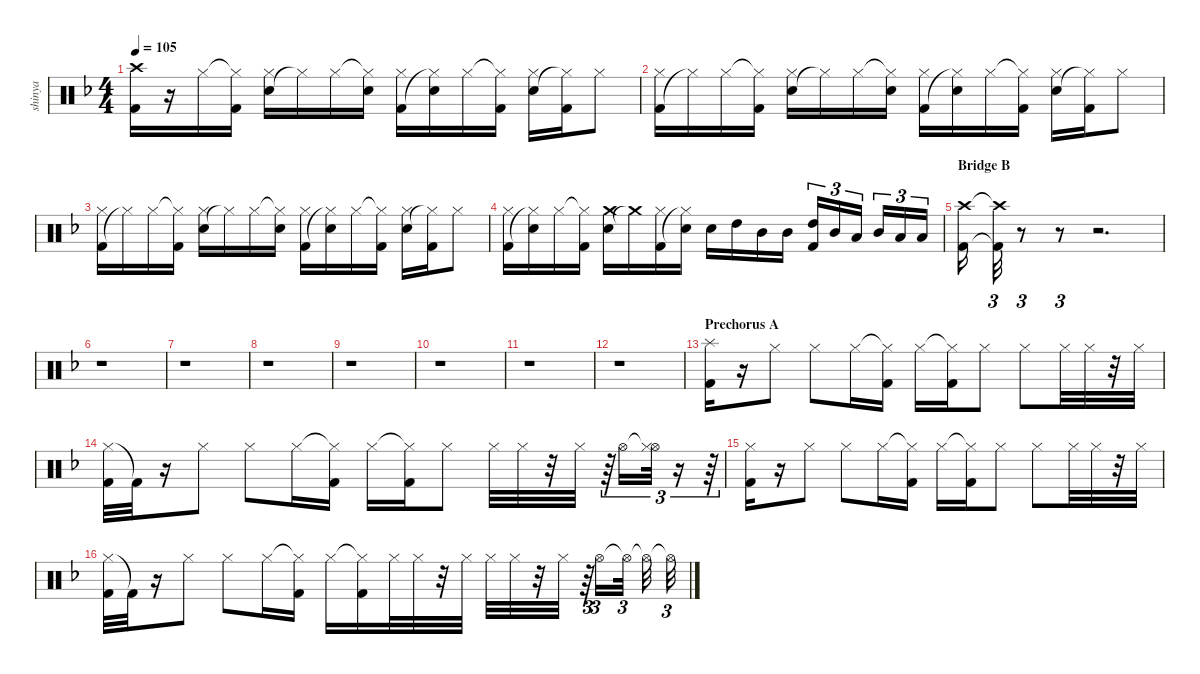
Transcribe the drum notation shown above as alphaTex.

\defaultSystemsLayout 4
\hideDynamics
\bracketExtendMode nobrackets
\otherSystemsTrackNameOrientation horizontal
\track ("Shinya" "shinya") {defaultSystemsLayout 4 instrument percussion}
\staff {score}
\articulation defaults
\ts (4 4)
\tempo 105
\clef neutral
\scale
1.05921
\ks dminor
("Kick (hit) 2"{acc forcenatural} "Crash high (hit)"{acc #}).16{dy fff} r.16 "Hi-Hat (closed)"{acc #}.16 ("Hi-Hat (closed)"{t acc #} "Kick (hit) 2"{acc forcenatural}).16 ("Snare (hit) 2"{acc forcenatural} "Hi-Hat (closed)"{acc #}).16 "Hi-Hat (closed)"{t acc #}.16 "Hi-Hat (closed)"{acc #}.16 ("Hi-Hat (closed)"{t acc #} "Snare (hit) 2"{acc forcenatural}).16 ("Kick (hit) 2"{acc forcenatural} "Hi-Hat (closed)"{acc #}).16 ("Hi-Hat (closed)"{t acc #} "Snare (hit) 2"{acc forcenatural}).16 "Hi-Hat (closed)"{acc #}.16 ("Hi-Hat (closed)"{t acc #} "Kick (hit) 2"{acc forcenatural}).16 ("Snare (hit) 2"{acc forcenatural} "Hi-Hat (closed)"{acc #}).16 ("Hi-Hat (closed)"{t acc #} "Kick (hit) 2"{acc forcenatural}).16 "Hi-Hat (closed)"{acc #}.8 |
\scale
0.974368 ("Kick (hit) 2"{acc forcenatural} "Hi-Hat (closed)"{acc #}).16 "Hi-Hat (closed)"{t acc #}.16 "Hi-Hat (closed)"{acc #}.16 ("Hi-Hat (closed)"{t acc #} "Kick (hit) 2"{acc forcenatural}).16 ("Snare (hit) 2"{acc forcenatural} "Hi-Hat (closed)"{acc #}).16 "Hi-Hat (closed)"{t acc #}.16 "Hi-Hat (closed)"{acc #}.16 ("Hi-Hat (closed)"{t acc #} "Snare (hit) 2"{acc forcenatural}).16 ("Kick (hit) 2"{acc forcenatural} "Hi-Hat (closed)"{acc #}).16 ("Hi-Hat (closed)"{t acc #} "Snare (hit) 2"{acc forcenatural}).16 "Hi-Hat (closed)"{acc #}.16 ("Hi-Hat (closed)"{t acc #} "Kick (hit) 2"{acc forcenatural}).16 ("Snare (hit) 2"{acc forcenatural} "Hi-Hat (closed)"{acc #}).16 ("Hi-Hat (closed)"{t acc #} "Kick (hit) 2"{acc forcenatural}).16 "Hi-Hat (closed)"{acc #}.8 |
\scale
0.974368 ("Kick (hit) 2"{acc forcenatural} "Hi-Hat (closed)"{acc #}).16 "Hi-Hat (closed)"{t acc #}.16 "Hi-Hat (closed)"{acc #}.16 ("Hi-Hat (closed)"{t acc #} "Kick (hit) 2"{acc forcenatural}).16 ("Snare (hit) 2"{acc forcenatural} "Hi-Hat (closed)"{acc #}).16 "Hi-Hat (closed)"{t acc #}.16 "Hi-Hat (closed)"{acc #}.16 ("Hi-Hat (closed)"{t acc #} "Snare (hit) 2"{acc forcenatural}).16 ("Kick (hit) 2"{acc forcenatural} "Hi-Hat (closed)"{acc #}).16 ("Hi-Hat (closed)"{t acc #} "Snare (hit) 2"{acc forcenatural}).16 "Hi-Hat (closed)"{acc #}.16 ("Hi-Hat (closed)"{t acc #} "Kick (hit) 2"{acc forcenatural}).16 ("Snare (hit) 2"{acc forcenatural} "Hi-Hat (closed)"{acc #}).16 ("Hi-Hat (closed)"{t acc #} "Kick (hit) 2"{acc forcenatural}).16 "Hi-Hat (closed)"{acc #}.8 |
\scale
0.992053 ("Kick (hit) 2"{acc forcenatural} "Hi-Hat (closed)"{acc #}).16 ("Hi-Hat (closed)"{t acc #} "Snare (hit) 2"{acc forcenatural}).16{dy ff} "Hi-Hat (closed)"{acc #}.16 ("Hi-Hat (closed)"{t acc #} "Kick (hit) 2"{acc forcenatural}).16 ("Snare (hit) 2"{acc forcenatural} "Crash medium (hit)"{acc forcenatural}).16{dy fff} "Crash medium (hit)"{t acc forcenatural}.16 ("Kick (hit) 2"{acc forcenatural} "Hi-Hat (closed)"{acc #}).16 ("Hi-Hat (closed)"{t acc #} "Snare (hit) 2"{acc forcenatural}).16{dy ff} "Snare (hit) 2"{acc forcenatural}.16{dy fff} "High Tom (hit)"{acc forcenatural}.16 "Mid Tom (hit)"{acc forcenatural}.16 "Mid Tom (hit)"{acc forcenatural}.16 ("Kick (hit) 2"{acc forcenatural} "High Tom (hit)"{acc forcenatural}).16{tu (3 2)} "Mid Tom (hit)"{acc forcenatural}.16{tu (3 2)} "Low Tom (hit)"{acc forcenatural}.16{tu (3 2) dy ff} "Mid Tom (hit)"{acc forcenatural}.16{tu (3 2) dy fff} "Low Tom (hit)"{acc forcenatural}.16{tu (3 2)} "Low Tom (hit)"{acc forcenatural}.16{tu (3 2) dy ff} |
\section ("" "Bridge B")
\scale
1.06363 ("Kick (hit) 2"{acc forcenatural} "Crash high (hit)"{acc #}).16{dy fff} ("Kick (hit) 2"{t acc forcenatural} "Crash high (hit)"{t acc #}).32{tu (3 2)} r.8{tu (3 2)} r.8{tu (3 2)} r.2{d} |
\scale
0.97879 r.1 |
\scale
0.97879 r.1 |
\scale
0.97879 r.1 |
\scale
1.05921 r.1 |
\scale
0.974368 r.1 |
\scale
0.974368 r.1 |
\scale
0.992053 r.1 |
\section ("" "Prechorus A")
\scale
1.06363 ("Kick (hit) 2"{acc forcenatural} "Splash (hit)"{acc forcenatural}).16 r.16 "Hi-Hat (closed)"{acc #}.8{dy ff} "Hi-Hat (closed)"{acc #}.8 "Hi-Hat (closed)"{acc #}.16 ("Hi-Hat (closed)"{t acc #} "Kick (hit) 2"{acc forcenatural}).16 "Hi-Hat (closed)"{acc #}.16 ("Hi-Hat (closed)"{t acc #} "Kick (hit) 2"{acc forcenatural}).16 "Hi-Hat (closed)"{acc #}.8 "Hi-Hat (closed)"{acc #}.8 "Hi-Hat (closed)"{acc #}.32 "Hi-Hat (closed)"{acc #}.32{dy fff} r.32 "Hi-Hat (closed)"{acc #}.32{dy ff} |
\scale
0.97879 ("Hi-Hat (closed)"{acc #} "Kick (hit) 2"{acc forcenatural}).32 "Kick (hit) 2"{t acc forcenatural}.32{dy fff} r.16 "Hi-Hat (closed)"{acc #}.8{dy ff} "Hi-Hat (closed)"{acc #}.8 "Hi-Hat (closed)"{acc #}.16 ("Hi-Hat (closed)"{t acc #} "Kick (hit) 2"{acc forcenatural}).16 "Hi-Hat (closed)"{acc #}.16 ("Hi-Hat (closed)"{t acc #} "Kick (hit) 2"{acc forcenatural}).16 "Hi-Hat (closed)"{acc #}.8 "Hi-Hat (closed)"{acc #}.32 "Hi-Hat (closed)"{acc #}.32{dy fff} r.32 "Hi-Hat (closed)"{acc #}.32{dy ff} r.64{tu (3 2)} "Hi-Hat (open)"{acc #}.16{tu (3 2)} ("Hi-Hat (open)"{t acc #} "Hi-Hat (closed)"{acc #}).32{tu (3 2)} r.16{tu (3 2)} r.64{tu (3 2)} |
\scale
0.97879 ("Kick (hit) 2"{acc forcenatural} "Hi-Hat (closed)"{acc #}).16{dy fff} r.16 "Hi-Hat (closed)"{acc #}.8{dy ff} "Hi-Hat (closed)"{acc #}.8 "Hi-Hat (closed)"{acc #}.16 ("Hi-Hat (closed)"{t acc #} "Kick (hit) 2"{acc forcenatural}).16 "Hi-Hat (closed)"{acc #}.16 ("Hi-Hat (closed)"{t acc #} "Kick (hit) 2"{acc forcenatural}).16 "Hi-Hat (closed)"{acc #}.8 "Hi-Hat (closed)"{acc #}.8 "Hi-Hat (closed)"{acc #}.32 "Hi-Hat (closed)"{acc #}.32{dy fff} r.32 "Hi-Hat (closed)"{acc #}.32{dy ff} |
\scale
0.97879 ("Hi-Hat (closed)"{acc #} "Kick (hit) 2"{acc forcenatural}).32 "Kick (hit) 2"{t acc forcenatural}.32{dy fff} r.16 "Hi-Hat (closed)"{acc #}.8{dy ff} "Hi-Hat (closed)"{acc #}.8 "Hi-Hat (closed)"{acc #}.16 ("Hi-Hat (closed)"{t acc #} "Kick (hit) 2"{acc forcenatural}).16 "Hi-Hat (closed)"{acc #}.16 ("Hi-Hat (closed)"{t acc #} "Kick (hit) 2"{acc forcenatural}).16 "Hi-Hat (closed)"{acc #}.32{dy fff} "Hi-Hat (closed)"{acc #}.32{dy ff} r.32 "Hi-Hat (closed)"{acc #}.32 "Hi-Hat (closed)"{acc #}.32{dy fff} "Hi-Hat (closed)"{acc #}.32{dy ff} r.32 "Hi-Hat (closed)"{acc #}.32 r.64{tu (3 2)} "Hi-Hat (open)"{acc #}.16{tu (3 2)} "Hi-Hat (open)"{t acc #}.32{tu (3 2)} "Hi-Hat (open)"{t acc #}.32 "Hi-Hat (open)"{t acc #}.32{tu (3 2)}
